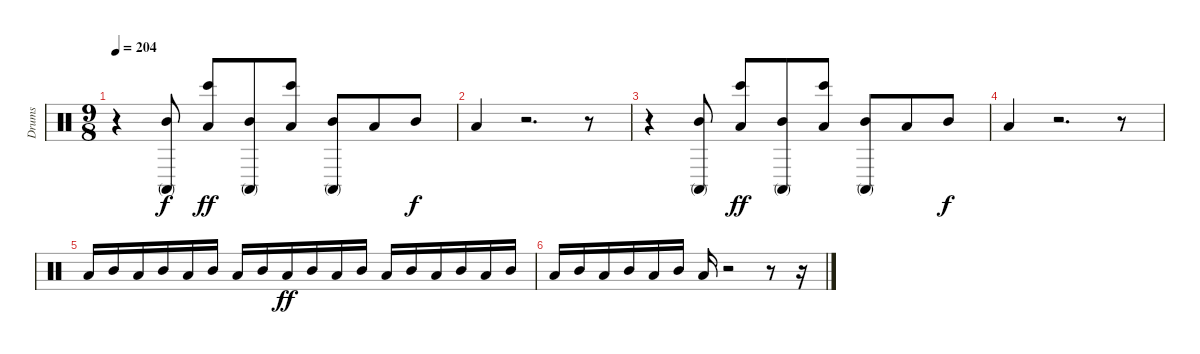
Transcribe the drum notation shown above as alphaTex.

\track ("Drums" "Drums") {instrument percussion}
\staff {score}
\articulation defaults
\ts (9 8)
\tempo 204
\clef neutral
\ks c
r.4{dy f} ("Conga high (mute)" "Mid Tom (hit)").8 ("Bongo High (hit)" "Low Tom (hit)").8{dy ff} ("Conga high (mute)" "Mid Tom (hit)").8 ("Bongo High (hit)" "Low Tom (hit)").8 ("Conga high (mute)" "Mid Tom (hit)").8 "Low Tom (hit)".8 "Mid Tom (hit)".8{dy f} |
"Low Tom (hit)".4 r.2{d} r.8 |
r.4 ("Conga high (mute)" "Mid Tom (hit)").8 ("Bongo High (hit)" "Low Tom (hit)").8{dy ff} ("Conga high (mute)" "Mid Tom (hit)").8 ("Bongo High (hit)" "Low Tom (hit)").8 ("Conga high (mute)" "Mid Tom (hit)").8 "Low Tom (hit)".8 "Mid Tom (hit)".8{dy f} |
"Low Tom (hit)".4 r.2{d} r.8 |
"Low Tom (hit)".16 "Mid Tom (hit)".16 "Low Tom (hit)".16 "Mid Tom (hit)".16 "Low Tom (hit)".16 "Mid Tom (hit)".16 "Low Tom (hit)".16 "Mid Tom (hit)".16 "Low Tom (hit)".16{dy ff} "Mid Tom (hit)".16 "Low Tom (hit)".16 "Mid Tom (hit)".16 "Low Tom (hit)".16 "Mid Tom (hit)".16 "Low Tom (hit)".16 "Mid Tom (hit)".16 "Low Tom (hit)".16 "Mid Tom (hit)".16 |
"Low Tom (hit)".16 "Mid Tom (hit)".16 "Low Tom (hit)".16 "Mid Tom (hit)".16 "Low Tom (hit)".16 "Mid Tom (hit)".16 "Low Tom (hit)".16 r.2 r.8 r.16
